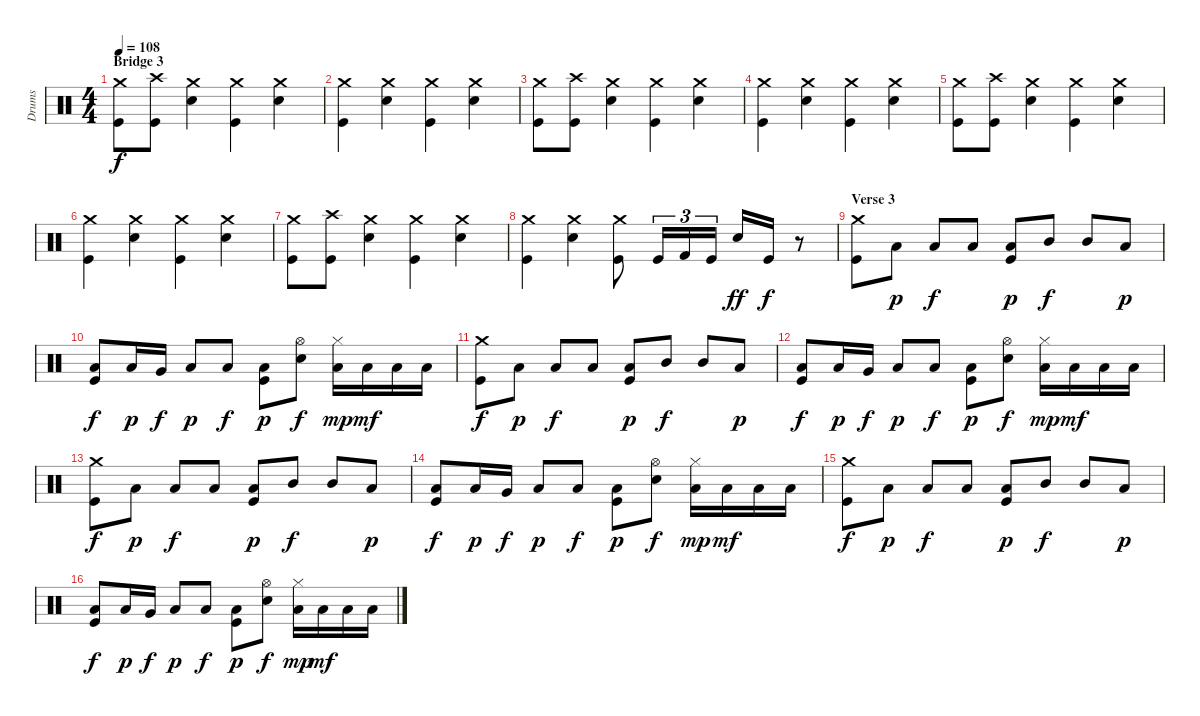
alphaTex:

\track ("Drums" "Drums") {instrument percussion}
\staff {score}
\articulation defaults
\ts (4 4)
\section ("" "Bridge 3")
\tempo 108
\clef neutral
\ks c
("Crash medium (hit)" "Kick (hit)").8{dy f} ("Crash high (hit)" "Kick (hit)").8 ("Crash medium (hit)" "Electric Snare (hit)").4 ("Crash medium (hit)" "Kick (hit)").4 ("Crash medium (hit)" "Electric Snare (hit)").4 |
("Crash medium (hit)" "Kick (hit)").4 ("Crash medium (hit)" "Electric Snare (hit)").4 ("Crash medium (hit)" "Kick (hit)").4 ("Crash medium (hit)" "Electric Snare (hit)").4 |
("Crash medium (hit)" "Kick (hit)").8 ("Crash high (hit)" "Kick (hit)").8 ("Crash medium (hit)" "Electric Snare (hit)").4 ("Crash medium (hit)" "Kick (hit)").4 ("Crash medium (hit)" "Electric Snare (hit)").4 |
("Crash medium (hit)" "Kick (hit)").4 ("Crash medium (hit)" "Electric Snare (hit)").4 ("Crash medium (hit)" "Kick (hit)").4 ("Crash medium (hit)" "Electric Snare (hit)").4 |
("Crash medium (hit)" "Kick (hit)").8 ("Crash high (hit)" "Kick (hit)").8 ("Crash medium (hit)" "Electric Snare (hit)").4 ("Crash medium (hit)" "Kick (hit)").4 ("Crash medium (hit)" "Electric Snare (hit)").4 |
("Crash medium (hit)" "Kick (hit)").4 ("Crash medium (hit)" "Electric Snare (hit)").4 ("Crash medium (hit)" "Kick (hit)").4 ("Crash medium (hit)" "Electric Snare (hit)").4 |
("Crash medium (hit)" "Kick (hit)").8 ("Crash high (hit)" "Kick (hit)").8 ("Crash medium (hit)" "Electric Snare (hit)").4 ("Crash medium (hit)" "Kick (hit)").4 ("Crash medium (hit)" "Electric Snare (hit)").4 |
("Crash medium (hit)" "Kick (hit)").4 ("Crash medium (hit)" "Electric Snare (hit)").4 ("Crash medium (hit)" "Kick (hit)").8 "Kick (hit)".16{tu (3 2)} "Kick (hit) 2".16{tu (3 2)} "Kick (hit)".16{tu (3 2)} "Electric Snare (hit)".16{dy ff} "Kick (hit)".16{dy f} r.8 |
\section ("" "Verse 3")
("Crash medium (hit)" "Kick (hit)").8 "Low Floor Tom (hit)".8{dy p} "Low Tom (hit)".8{dy f} "Low Tom (hit)".8 ("Low Floor Tom (hit)" "Kick (hit)").8{dy p} "Mid Tom (hit)".8{dy f} "Mid Tom (hit)".8 "Low Floor Tom (hit)".8{dy p} |
("Low Tom (hit)" "Kick (hit)").8{dy f} "Low Floor Tom (hit)".16{dy p} "Very Low Tom (hit)".16{dy f} "Low Floor Tom (hit)".8{dy p} "Low Tom (hit)".8{dy f} ("Low Floor Tom (hit)" "Kick (hit)").8{dy p} ("Hi-Hat (open)" "Electric Snare (hit)").8{dy f} ("Hi-Hat (closed)" "Low Floor Tom (hit)").16{dy mp} "Low Floor Tom (hit)".16{dy mf} "Low Floor Tom (hit)".16 "Low Floor Tom (hit)".16 |
("Crash medium (hit)" "Kick (hit)").8{dy f} "Low Floor Tom (hit)".8{dy p} "Low Tom (hit)".8{dy f} "Low Tom (hit)".8 ("Low Floor Tom (hit)" "Kick (hit)").8{dy p} "Mid Tom (hit)".8{dy f} "Mid Tom (hit)".8 "Low Floor Tom (hit)".8{dy p} |
("Low Tom (hit)" "Kick (hit)").8{dy f} "Low Floor Tom (hit)".16{dy p} "Very Low Tom (hit)".16{dy f} "Low Floor Tom (hit)".8{dy p} "Low Tom (hit)".8{dy f} ("Low Floor Tom (hit)" "Kick (hit)").8{dy p} ("Hi-Hat (open)" "Electric Snare (hit)").8{dy f} ("Hi-Hat (closed)" "Low Floor Tom (hit)").16{dy mp} "Low Floor Tom (hit)".16{dy mf} "Low Floor Tom (hit)".16 "Low Floor Tom (hit)".16 |
("Crash medium (hit)" "Kick (hit)").8{dy f} "Low Floor Tom (hit)".8{dy p} "Low Tom (hit)".8{dy f} "Low Tom (hit)".8 ("Low Floor Tom (hit)" "Kick (hit)").8{dy p} "Mid Tom (hit)".8{dy f} "Mid Tom (hit)".8 "Low Floor Tom (hit)".8{dy p} |
("Low Tom (hit)" "Kick (hit)").8{dy f} "Low Floor Tom (hit)".16{dy p} "Very Low Tom (hit)".16{dy f} "Low Floor Tom (hit)".8{dy p} "Low Tom (hit)".8{dy f} ("Low Floor Tom (hit)" "Kick (hit)").8{dy p} ("Hi-Hat (open)" "Electric Snare (hit)").8{dy f} ("Hi-Hat (closed)" "Low Floor Tom (hit)").16{dy mp} "Low Floor Tom (hit)".16{dy mf} "Low Floor Tom (hit)".16 "Low Floor Tom (hit)".16 |
("Crash medium (hit)" "Kick (hit)").8{dy f} "Low Floor Tom (hit)".8{dy p} "Low Tom (hit)".8{dy f} "Low Tom (hit)".8 ("Low Floor Tom (hit)" "Kick (hit)").8{dy p} "Mid Tom (hit)".8{dy f} "Mid Tom (hit)".8 "Low Floor Tom (hit)".8{dy p} |
("Low Tom (hit)" "Kick (hit)").8{dy f} "Low Floor Tom (hit)".16{dy p} "Very Low Tom (hit)".16{dy f} "Low Floor Tom (hit)".8{dy p} "Low Tom (hit)".8{dy f} ("Low Floor Tom (hit)" "Kick (hit)").8{dy p} ("Hi-Hat (open)" "Electric Snare (hit)").8{dy f} ("Hi-Hat (closed)" "Low Floor Tom (hit)").16{dy mp} "Low Floor Tom (hit)".16{dy mf} "Low Floor Tom (hit)".16 "Low Floor Tom (hit)".16
